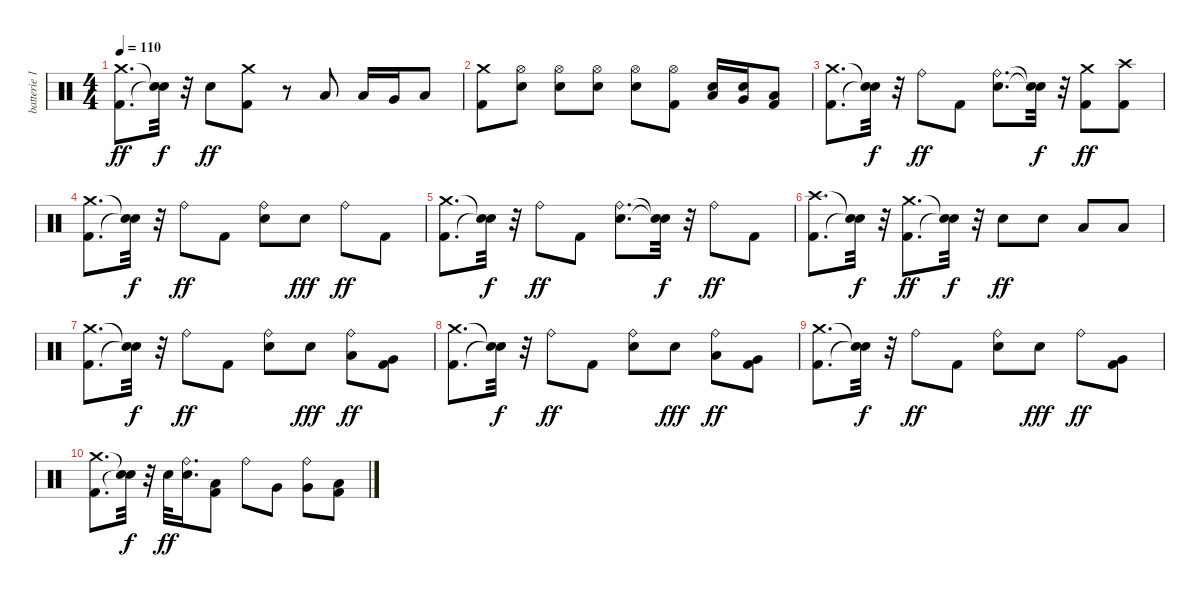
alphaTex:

\track ("batterie 1" "batterie 1") {instrument percussion}
\staff {score}
\articulation defaults
\ts (4 4)
\tempo 110
\clef neutral
\ks c
("Kick (hit) 2" "Crash medium (hit)").8{d dy ff} ("Snare (hit)"{t} "Snare (hit)"{t}).32{dy f} r.32 "Electric Snare (hit)".8{dy ff} ("Kick (hit) 2" "Crash medium (hit)").8 r.8 "Low Tom (hit)".8 "Low Tom (hit)".16 "Very Low Tom (hit)".16 "Low Floor Tom (hit)".8 |
("Kick (hit) 2" "Crash medium (hit)").8 ("Electric Snare (hit)" "Hi-Hat (open)").8 ("Electric Snare (hit)" "Hi-Hat (open)").8 ("Electric Snare (hit)" "Hi-Hat (open)").8 ("Electric Snare (hit)" "Hi-Hat (open)").8 ("Kick (hit) 2" "Hi-Hat (open)").8 ("Electric Snare (hit)" "Low Tom (hit)").16 ("Electric Snare (hit)" "Very Low Tom (hit)").16 ("Kick (hit) 2" "Low Floor Tom (hit)").8 |
("Kick (hit) 2" "Crash medium (hit)").8{d} ("Snare (hit)"{t} "Snare (hit)"{t}).32{dy f} r.32 "Ride (bell)".8{dy ff} "Kick (hit) 2".8 ("Electric Snare (hit)" "Ride (bell)").8{d} ("Snare (hit)"{t} "Snare (hit)"{t}).32{dy f} r.32 ("Kick (hit) 2" "Crash medium (hit)").8{dy ff} ("Kick (hit) 2" "Crash high (hit)").8 |
("Kick (hit) 2" "Crash medium (hit)").8{d} ("Snare (hit)"{t} "Snare (hit)"{t}).32{dy f} r.32 "Ride (bell)".8{dy ff} "Kick (hit) 2".8 ("Electric Snare (hit)" "Ride (bell)").8 "Electric Snare (hit)".8{dy fff} "Ride (bell)".8{dy ff} "Kick (hit) 2".8 |
("Kick (hit) 2" "Crash medium (hit)").8{d} ("Snare (hit)"{t} "Snare (hit)"{t}).32{dy f} r.32 "Ride (bell)".8{dy ff} "Kick (hit) 2".8 ("Electric Snare (hit)" "Ride (bell)").8{d} ("Snare (hit)"{t} "Snare (hit)"{t}).32{dy f} r.32 "Ride (bell)".8{dy ff} "Kick (hit) 2".8 |
("Kick (hit) 2" "Crash high (hit)").8{d} ("Snare (hit)"{t} "Snare (hit)"{t}).32{dy f} r.32 ("Kick (hit) 2" "Crash medium (hit)").8{d dy ff} ("Snare (hit)"{t} "Snare (hit)"{t}).32{dy f} r.32 "Electric Snare (hit)".8{dy ff} "Electric Snare (hit)".8 "Low Tom (hit)".8 "Low Floor Tom (hit)".8 |
("Kick (hit) 2" "Crash medium (hit)").8{d} ("Snare (hit)"{t} "Snare (hit)"{t}).32{dy f} r.32 "Ride (bell)".8{dy ff} "Kick (hit) 2".8 ("Electric Snare (hit)" "Ride (bell)").8 "Electric Snare (hit)".8{dy fff} ("Low Tom (hit)" "Ride (bell)").8{dy ff} ("Kick (hit) 2" "Very Low Tom (hit)").8 |
("Kick (hit) 2" "Crash medium (hit)").8{d} ("Snare (hit)"{t} "Snare (hit)"{t}).32{dy f} r.32 "Ride (bell)".8{dy ff} "Kick (hit) 2".8 ("Electric Snare (hit)" "Ride (bell)").8 "Electric Snare (hit)".8{dy fff} ("Low Tom (hit)" "Ride (bell)").8{dy ff} ("Kick (hit) 2" "Very Low Tom (hit)").8 |
("Kick (hit) 2" "Crash medium (hit)").8{d} ("Snare (hit)"{t} "Snare (hit)"{t}).32{dy f} r.32 "Ride (bell)".8{dy ff} "Kick (hit) 2".8 ("Electric Snare (hit)" "Ride (bell)").8 "Electric Snare (hit)".8{dy fff} "Ride (bell)".8{dy ff} ("Kick (hit) 2" "Very Low Tom (hit)").8 |
("Kick (hit) 2" "Crash medium (hit)").8{d} ("Snare (hit)"{t} "Snare (hit)"{t}).32{dy f} r.32 "Electric Snare (hit)".32{dy ff} ("Electric Snare (hit)" "Ride (bell)").16{d} ("Kick (hit) 2" "Low Tom (hit)").8 "Ride (bell)".8 "Very Low Tom (hit)".8 ("Very Low Tom (hit)" "Ride (bell)").8 ("Kick (hit) 2" "Low Floor Tom (hit)").8
